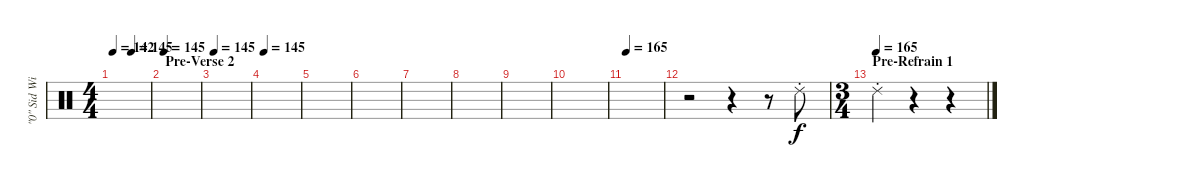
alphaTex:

\track ("\"0\" Sid Wilson (DJ)" "\"0\" Sid Wi") {instrument percussion}
\staff {score}
\articulation defaults
\ts (4 4)
\tempo 142
\tempo (145 0.5)
\clef neutral
\ks c
|
\section ("" "Pre-Verse 2")
\tempo 145
|
\tempo 145
|
\tempo 145
|
|
|
|
|
|
|
\tempo 165
|
r.2 r.4 r.8 "Ride (choke) 2".8 |
\ts (3 4)
\section ("" "Pre-Refrain 1")
\tempo (165)
"Ride (choke) 2".4 r.4 r.4
